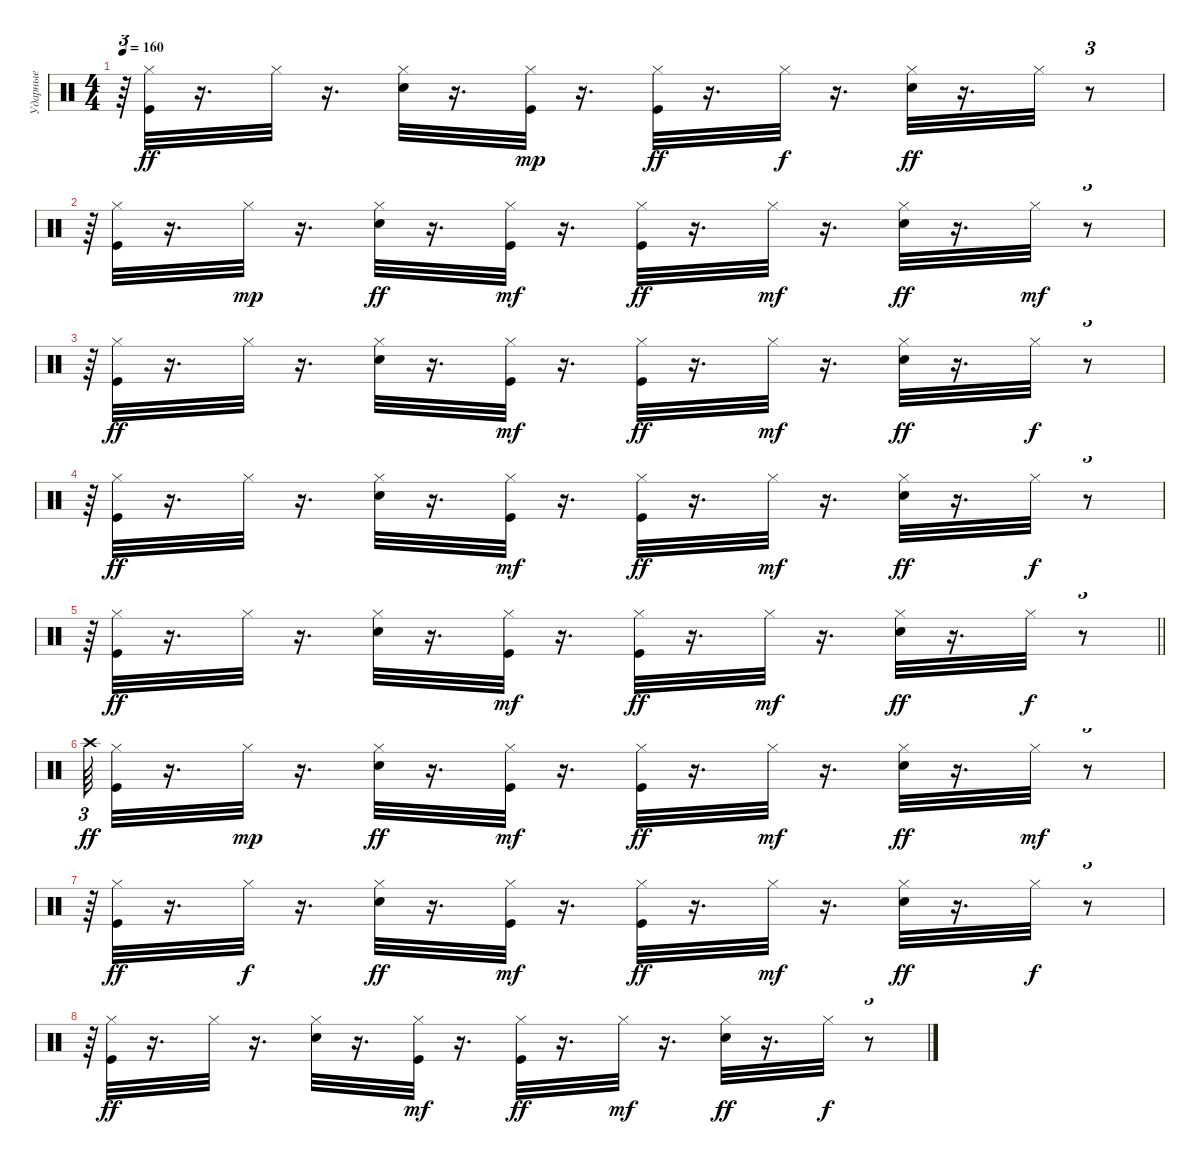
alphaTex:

\track ("Ударные" "Ударные") {instrument percussion}
\staff {score}
\articulation defaults
\ts (4 4)
\tempo 160
\clef neutral
\ks c
r.64{tu (3 2) dy f} ("Kick (hit)" "Hi-Hat (closed)").32{dy ff} r.16{d} "Hi-Hat (closed)".32 r.16{d} ("Hi-Hat (closed)" "Electric Snare (hit)").32 r.16{d} ("Kick (hit)" "Hi-Hat (closed)").32{dy mp} r.16{d} ("Kick (hit)" "Hi-Hat (closed)").32{dy ff} r.16{d} "Hi-Hat (closed)".32{dy f} r.16{d} ("Hi-Hat (closed)" "Electric Snare (hit)").32{dy ff} r.16{d} "Hi-Hat (closed)".32 r.8{tu (3 2)} |
r.64{tu (3 2)} ("Kick (hit)" "Hi-Hat (closed)").32 r.16{d} "Hi-Hat (closed)".32{dy mp} r.16{d} ("Hi-Hat (closed)" "Electric Snare (hit)").32{dy ff} r.16{d} ("Kick (hit)" "Hi-Hat (closed)").32{dy mf} r.16{d} ("Kick (hit)" "Hi-Hat (closed)").32{dy ff} r.16{d} "Hi-Hat (closed)".32{dy mf} r.16{d} ("Hi-Hat (closed)" "Electric Snare (hit)").32{dy ff} r.16{d} "Hi-Hat (closed)".32{dy mf} r.8{tu (3 2)} |
r.64{tu (3 2)} ("Kick (hit)" "Hi-Hat (closed)").32{dy ff} r.16{d} "Hi-Hat (closed)".32 r.16{d} ("Hi-Hat (closed)" "Electric Snare (hit)").32 r.16{d} ("Kick (hit)" "Hi-Hat (closed)").32{dy mf} r.16{d} ("Kick (hit)" "Hi-Hat (closed)").32{dy ff} r.16{d} "Hi-Hat (closed)".32{dy mf} r.16{d} ("Hi-Hat (closed)" "Electric Snare (hit)").32{dy ff} r.16{d} "Hi-Hat (closed)".32{dy f} r.8{tu (3 2)} |
r.64{tu (3 2)} ("Kick (hit)" "Hi-Hat (closed)").32{dy ff} r.16{d} "Hi-Hat (closed)".32 r.16{d} ("Hi-Hat (closed)" "Electric Snare (hit)").32 r.16{d} ("Kick (hit)" "Hi-Hat (closed)").32{dy mf} r.16{d} ("Kick (hit)" "Hi-Hat (closed)").32{dy ff} r.16{d} "Hi-Hat (closed)".32{dy mf} r.16{d} ("Hi-Hat (closed)" "Electric Snare (hit)").32{dy ff} r.16{d} "Hi-Hat (closed)".32{dy f} r.8{tu (3 2)} |
\barLineRight lightlight
r.64{tu (3 2)} ("Kick (hit)" "Hi-Hat (closed)").32{dy ff} r.16{d} "Hi-Hat (closed)".32 r.16{d} ("Hi-Hat (closed)" "Electric Snare (hit)").32 r.16{d} ("Kick (hit)" "Hi-Hat (closed)").32{dy mf} r.16{d} ("Kick (hit)" "Hi-Hat (closed)").32{dy ff} r.16{d} "Hi-Hat (closed)".32{dy mf} r.16{d} ("Hi-Hat (closed)" "Electric Snare (hit)").32{dy ff} r.16{d} "Hi-Hat (closed)".32{dy f} r.8{tu (3 2)} |
"Crash high (hit)".64{tu (3 2) dy ff} ("Kick (hit)" "Hi-Hat (closed)").32 r.16{d} "Hi-Hat (closed)".32{dy mp} r.16{d} ("Hi-Hat (closed)" "Electric Snare (hit)").32{dy ff} r.16{d} ("Kick (hit)" "Hi-Hat (closed)").32{dy mf} r.16{d} ("Kick (hit)" "Hi-Hat (closed)").32{dy ff} r.16{d} "Hi-Hat (closed)".32{dy mf} r.16{d} ("Hi-Hat (closed)" "Electric Snare (hit)").32{dy ff} r.16{d} "Hi-Hat (closed)".32{dy mf} r.8{tu (3 2)} |
r.64{tu (3 2)} ("Kick (hit)" "Hi-Hat (closed)").32{dy ff} r.16{d} "Hi-Hat (closed)".32{dy f} r.16{d} ("Hi-Hat (closed)" "Electric Snare (hit)").32{dy ff} r.16{d} ("Kick (hit)" "Hi-Hat (closed)").32{dy mf} r.16{d} ("Kick (hit)" "Hi-Hat (closed)").32{dy ff} r.16{d} "Hi-Hat (closed)".32{dy mf} r.16{d} ("Hi-Hat (closed)" "Electric Snare (hit)").32{dy ff} r.16{d} "Hi-Hat (closed)".32{dy f} r.8{tu (3 2)} |
r.64{tu (3 2)} ("Kick (hit)" "Hi-Hat (closed)").32{dy ff} r.16{d} "Hi-Hat (closed)".32 r.16{d} ("Hi-Hat (closed)" "Electric Snare (hit)").32 r.16{d} ("Kick (hit)" "Hi-Hat (closed)").32{dy mf} r.16{d} ("Kick (hit)" "Hi-Hat (closed)").32{dy ff} r.16{d} "Hi-Hat (closed)".32{dy mf} r.16{d} ("Hi-Hat (closed)" "Electric Snare (hit)").32{dy ff} r.16{d} "Hi-Hat (closed)".32{dy f} r.8{tu (3 2)}
